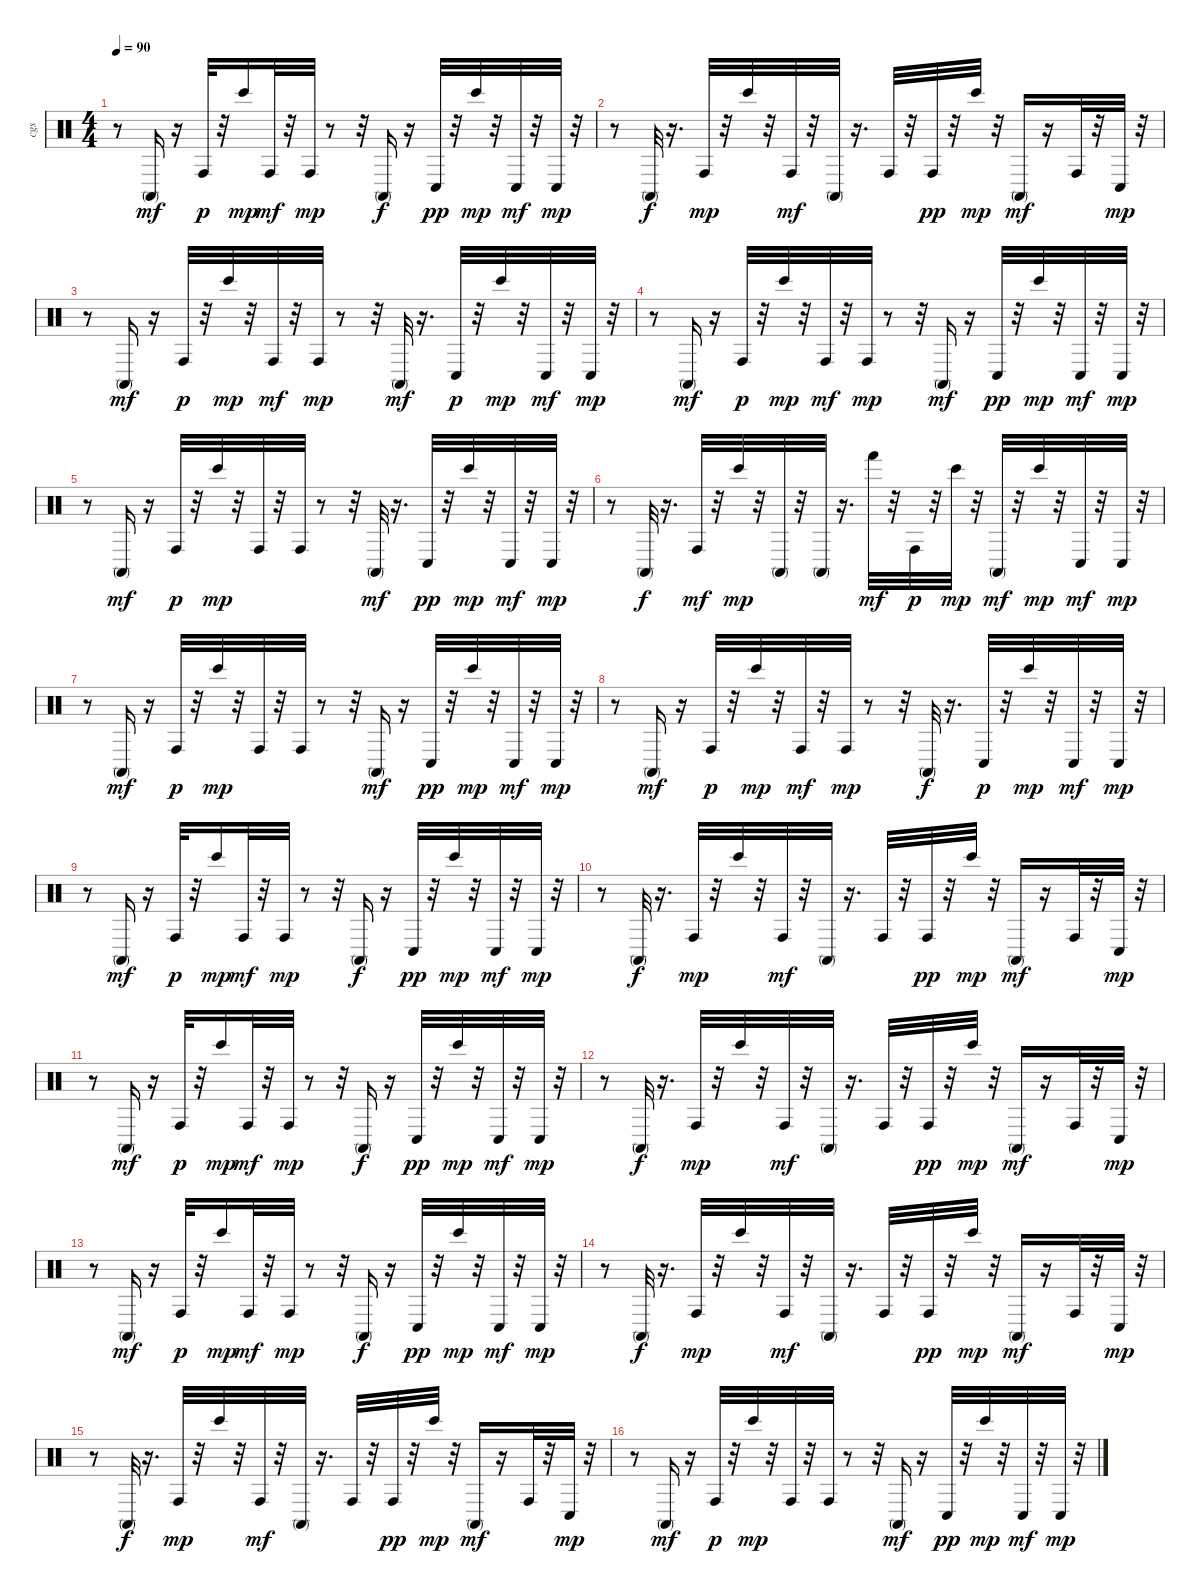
\track ("cgs" "cgs") {instrument percussion}
\staff {score}
\articulation defaults
\ts (4 4)
\tempo 90
\clef neutral
\ks c
r.8{dy mp} "Conga high (mute)".16{dy mf} r.16 "Conga high (hit)".32{dy p} r.32 "Bongo High (hit)".16{dy mp} "Conga high (hit)".32{dy mf} r.32 "Conga high (hit)".32{dy mp} r.8 r.32 "Conga high (mute)".16{dy f} r.16 "Conga low (hit)".32{dy pp} r.32 "Bongo High (hit)".32{dy mp} r.32 "Conga low (hit)".32{dy mf} r.32 "Conga low (hit)".32{dy mp} r.32 |
r.8 "Conga high (mute)".32{dy f} r.16{d} "Conga high (hit)".32{dy mp} r.32 "Bongo High (hit)".32 r.32 "Conga high (hit)".32{dy mf} r.32 "Conga high (mute)".32 r.16{d} "Conga high (hit)".32 r.32 "Conga high (hit)".32{dy pp} r.32 "Bongo High (hit)".32{dy mp} r.32 "Conga high (mute)".16{dy mf} r.16 "Conga high (hit)".32 r.32 "Conga low (hit)".32{dy mp} r.32 |
r.8 "Conga high (mute)".16{dy mf} r.16 "Conga high (hit)".32{dy p} r.32 "Bongo High (hit)".32{dy mp} r.32 "Conga high (hit)".32{dy mf} r.32 "Conga high (hit)".32{dy mp} r.8 r.32 "Conga high (mute)".32{dy mf} r.16{d} "Conga low (hit)".32{dy p} r.32 "Bongo High (hit)".32{dy mp} r.32 "Conga low (hit)".32{dy mf} r.32 "Conga low (hit)".32{dy mp} r.32 |
r.8 "Conga high (mute)".16{dy mf} r.16 "Conga high (hit)".32{dy p} r.32 "Bongo High (hit)".32{dy mp} r.32 "Conga high (hit)".32{dy mf} r.32 "Conga high (hit)".32{dy mp} r.8 r.32 "Conga high (mute)".16{dy mf} r.16 "Conga low (hit)".32{dy pp} r.32 "Bongo High (hit)".32{dy mp} r.32 "Conga low (hit)".32{dy mf} r.32 "Conga low (hit)".32{dy mp} r.32 |
r.8 "Conga high (mute)".16{dy mf} r.16 "Conga high (hit)".32{dy p} r.32 "Bongo High (hit)".32{dy mp} r.32 "Conga high (hit)".32 r.32 "Conga high (hit)".32 r.8 r.32 "Conga high (mute)".32{dy mf} r.16{d} "Conga low (hit)".32{dy pp} r.32 "Bongo High (hit)".32{dy mp} r.32 "Conga low (hit)".32{dy mf} r.32 "Conga low (hit)".32{dy mp} r.32 |
r.8 "Conga high (mute)".32{dy f} r.16{d} "Conga high (hit)".32{dy mf} r.32 "Bongo High (hit)".32{dy mp} r.32 "Conga high (mute)".32 r.32 "Conga high (mute)".32 r.16{d} "Hand (hit)".32{dy mf} r.32 "Conga high (hit)".32{dy p} r.32 "Bongo High (hit)".32{dy mp} r.32 "Conga high (mute)".32{dy mf} r.32 "Bongo High (hit)".32{dy mp} r.32 "Conga low (hit)".32{dy mf} r.32 "Conga low (hit)".32{dy mp} r.32 |
r.8 "Conga high (mute)".16{dy mf} r.16 "Conga high (hit)".32{dy p} r.32 "Bongo High (hit)".32{dy mp} r.32 "Conga high (hit)".32 r.32 "Conga high (hit)".32 r.8 r.32 "Conga high (mute)".16{dy mf} r.16 "Conga low (hit)".32{dy pp} r.32 "Bongo High (hit)".32{dy mp} r.32 "Conga low (hit)".32{dy mf} r.32 "Conga low (hit)".32{dy mp} r.32 |
r.8 "Conga high (mute)".16{dy mf} r.16 "Conga high (hit)".32{dy p} r.32 "Bongo High (hit)".32{dy mp} r.32 "Conga high (hit)".32{dy mf} r.32 "Conga high (hit)".32{dy mp} r.8 r.32 "Conga high (mute)".32{dy f} r.16{d} "Conga low (hit)".32{dy p} r.32 "Bongo High (hit)".32{dy mp} r.32 "Conga low (hit)".32{dy mf} r.32 "Conga low (hit)".32{dy mp} r.32 |
r.8 "Conga high (mute)".16{dy mf} r.16 "Conga high (hit)".32{dy p} r.32 "Bongo High (hit)".16{dy mp} "Conga high (hit)".32{dy mf} r.32 "Conga high (hit)".32{dy mp} r.8 r.32 "Conga high (mute)".16{dy f} r.16 "Conga low (hit)".32{dy pp} r.32 "Bongo High (hit)".32{dy mp} r.32 "Conga low (hit)".32{dy mf} r.32 "Conga low (hit)".32{dy mp} r.32 |
r.8 "Conga high (mute)".32{dy f} r.16{d} "Conga high (hit)".32{dy mp} r.32 "Bongo High (hit)".32 r.32 "Conga high (hit)".32{dy mf} r.32 "Conga high (mute)".32 r.16{d} "Conga high (hit)".32 r.32 "Conga high (hit)".32{dy pp} r.32 "Bongo High (hit)".32{dy mp} r.32 "Conga high (mute)".16{dy mf} r.16 "Conga high (hit)".32 r.32 "Conga low (hit)".32{dy mp} r.32 |
r.8 "Conga high (mute)".16{dy mf} r.16 "Conga high (hit)".32{dy p} r.32 "Bongo High (hit)".16{dy mp} "Conga high (hit)".32{dy mf} r.32 "Conga high (hit)".32{dy mp} r.8 r.32 "Conga high (mute)".16{dy f} r.16 "Conga low (hit)".32{dy pp} r.32 "Bongo High (hit)".32{dy mp} r.32 "Conga low (hit)".32{dy mf} r.32 "Conga low (hit)".32{dy mp} r.32 |
r.8 "Conga high (mute)".32{dy f} r.16{d} "Conga high (hit)".32{dy mp} r.32 "Bongo High (hit)".32 r.32 "Conga high (hit)".32{dy mf} r.32 "Conga high (mute)".32 r.16{d} "Conga high (hit)".32 r.32 "Conga high (hit)".32{dy pp} r.32 "Bongo High (hit)".32{dy mp} r.32 "Conga high (mute)".16{dy mf} r.16 "Conga high (hit)".32 r.32 "Conga low (hit)".32{dy mp} r.32 |
r.8 "Conga high (mute)".16{dy mf} r.16 "Conga high (hit)".32{dy p} r.32 "Bongo High (hit)".16{dy mp} "Conga high (hit)".32{dy mf} r.32 "Conga high (hit)".32{dy mp} r.8 r.32 "Conga high (mute)".16{dy f} r.16 "Conga low (hit)".32{dy pp} r.32 "Bongo High (hit)".32{dy mp} r.32 "Conga low (hit)".32{dy mf} r.32 "Conga low (hit)".32{dy mp} r.32 |
r.8 "Conga high (mute)".32{dy f} r.16{d} "Conga high (hit)".32{dy mp} r.32 "Bongo High (hit)".32 r.32 "Conga high (hit)".32{dy mf} r.32 "Conga high (mute)".32 r.16{d} "Conga high (hit)".32 r.32 "Conga high (hit)".32{dy pp} r.32 "Bongo High (hit)".32{dy mp} r.32 "Conga high (mute)".16{dy mf} r.16 "Conga high (hit)".32 r.32 "Conga low (hit)".32{dy mp} r.32 |
r.8 "Conga high (mute)".32{dy f} r.16{d} "Conga high (hit)".32{dy mp} r.32 "Bongo High (hit)".32 r.32 "Conga high (hit)".32{dy mf} r.32 "Conga high (mute)".32 r.16{d} "Conga high (hit)".32 r.32 "Conga high (hit)".32{dy pp} r.32 "Bongo High (hit)".32{dy mp} r.32 "Conga high (mute)".16{dy mf} r.16 "Conga high (hit)".32 r.32 "Conga low (hit)".32{dy mp} r.32 |
r.8 "Conga high (mute)".16{dy mf} r.16 "Conga high (hit)".32{dy p} r.32 "Bongo High (hit)".32{dy mp} r.32 "Conga high (hit)".32 r.32 "Conga high (hit)".32 r.8 r.32 "Conga high (mute)".16{dy mf} r.16 "Conga low (hit)".32{dy pp} r.32 "Bongo High (hit)".32{dy mp} r.32 "Conga low (hit)".32{dy mf} r.32 "Conga low (hit)".32{dy mp} r.32
